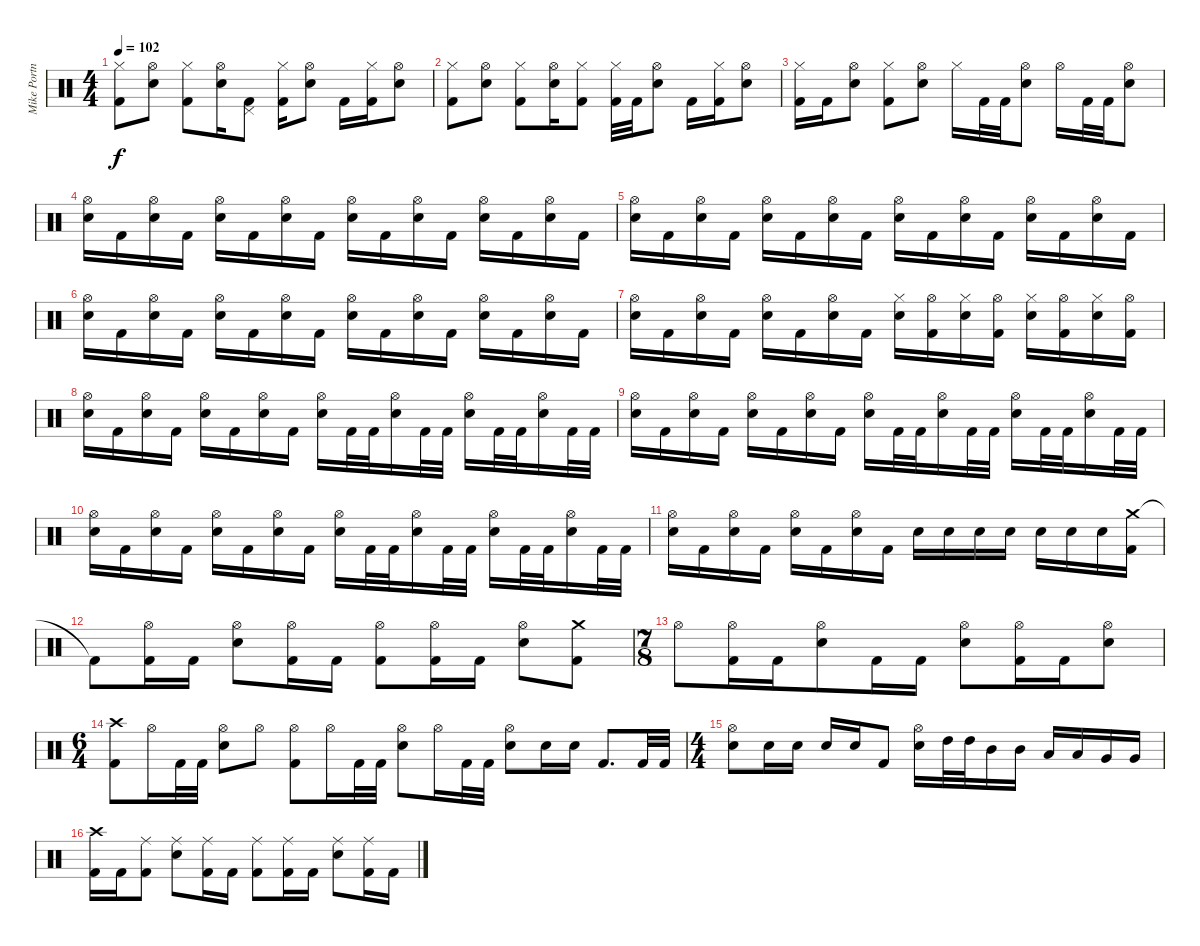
\track ("Mike Portnoy Drum " "Mike Portn") {instrument percussion}
\staff {score}
\articulation defaults
\ts (4 4)
\tempo 102
\clef neutral
\ks c
("Hi-Hat (closed)" "Kick (hit) 2").8{dy f} ("Hi-Hat (open)" "Electric Snare (hit)").8 ("Hi-Hat (closed)" "Kick (hit) 2").8 ("Hi-Hat (open)" "Electric Snare (hit)").16 ("Pedal Hi-Hat (hit)" "Kick (hit) 2").8 ("Hi-Hat (closed)" "Kick (hit) 2").16 ("Hi-Hat (open)" "Electric Snare (hit)").8 "Kick (hit) 2".16 ("Hi-Hat (closed)" "Kick (hit) 2").16 ("Hi-Hat (open)" "Electric Snare (hit)").8 |
("Hi-Hat (closed)" "Kick (hit) 2").8 ("Hi-Hat (open)" "Electric Snare (hit)").8 ("Hi-Hat (closed)" "Kick (hit) 2").8 ("Hi-Hat (open)" "Electric Snare (hit)").16 ("Hi-Hat (closed)" "Kick (hit) 2").8 ("Hi-Hat (closed)" "Kick (hit) 2").32 "Kick (hit) 2".32 ("Hi-Hat (open)" "Electric Snare (hit)").8 "Kick (hit) 2".16 ("Hi-Hat (closed)" "Kick (hit) 2").16 ("Hi-Hat (open)" "Electric Snare (hit)").8 |
("Hi-Hat (closed)" "Kick (hit) 2").16 "Kick (hit) 2".16 ("Hi-Hat (open)" "Electric Snare (hit)").8 ("Hi-Hat (closed)" "Kick (hit) 2").8 ("Hi-Hat (open)" "Electric Snare (hit)").8 "Hi-Hat (closed)".16 "Kick (hit) 2".32 "Kick (hit) 2".32 ("Hi-Hat (open)" "Electric Snare (hit)").8 "Hi-Hat (open)".16 "Kick (hit) 2".32 "Kick (hit) 2".32 ("Hi-Hat (open)" "Electric Snare (hit)").8 |
("Hi-Hat (open)" "Electric Snare (hit)").16 "Kick (hit) 2".16 ("Hi-Hat (open)" "Electric Snare (hit)").16 "Kick (hit) 2".16 ("Hi-Hat (open)" "Electric Snare (hit)").16 "Kick (hit) 2".16 ("Hi-Hat (open)" "Electric Snare (hit)").16 "Kick (hit) 2".16 ("Hi-Hat (open)" "Electric Snare (hit)").16 "Kick (hit) 2".16 ("Hi-Hat (open)" "Electric Snare (hit)").16 "Kick (hit) 2".16 ("Hi-Hat (open)" "Electric Snare (hit)").16 "Kick (hit) 2".16 ("Hi-Hat (open)" "Electric Snare (hit)").16 "Kick (hit) 2".16 |
("Hi-Hat (open)" "Electric Snare (hit)").16 "Kick (hit) 2".16 ("Hi-Hat (open)" "Electric Snare (hit)").16 "Kick (hit) 2".16 ("Hi-Hat (open)" "Electric Snare (hit)").16 "Kick (hit) 2".16 ("Hi-Hat (open)" "Electric Snare (hit)").16 "Kick (hit) 2".16 ("Hi-Hat (open)" "Electric Snare (hit)").16 "Kick (hit) 2".16 ("Hi-Hat (open)" "Electric Snare (hit)").16 "Kick (hit) 2".16 ("Hi-Hat (open)" "Electric Snare (hit)").16 "Kick (hit) 2".16 ("Hi-Hat (open)" "Electric Snare (hit)").16 "Kick (hit) 2".16 |
("Hi-Hat (open)" "Electric Snare (hit)").16 "Kick (hit) 2".16 ("Hi-Hat (open)" "Electric Snare (hit)").16 "Kick (hit) 2".16 ("Hi-Hat (open)" "Electric Snare (hit)").16 "Kick (hit) 2".16 ("Hi-Hat (open)" "Electric Snare (hit)").16 "Kick (hit) 2".16 ("Hi-Hat (open)" "Electric Snare (hit)").16 "Kick (hit) 2".16 ("Hi-Hat (open)" "Electric Snare (hit)").16 "Kick (hit) 2".16 ("Hi-Hat (open)" "Electric Snare (hit)").16 "Kick (hit) 2".16 ("Hi-Hat (open)" "Electric Snare (hit)").16 "Kick (hit) 2".16 |
("Hi-Hat (open)" "Electric Snare (hit)").16 "Kick (hit) 2".16 ("Hi-Hat (open)" "Electric Snare (hit)").16 "Kick (hit) 2".16 ("Hi-Hat (open)" "Electric Snare (hit)").16 "Kick (hit) 2".16 ("Hi-Hat (open)" "Electric Snare (hit)").16 "Kick (hit) 2".16 ("Hi-Hat (closed)" "Electric Snare (hit)").16 ("Hi-Hat (open)" "Kick (hit) 2").16 ("Hi-Hat (closed)" "Electric Snare (hit)").16 ("Hi-Hat (open)" "Kick (hit) 2").16 ("Hi-Hat (closed)" "Electric Snare (hit)").16 ("Hi-Hat (open)" "Kick (hit) 2").16 ("Hi-Hat (closed)" "Electric Snare (hit)").16 ("Hi-Hat (open)" "Kick (hit) 2").16 |
("Hi-Hat (open)" "Electric Snare (hit)").16 "Kick (hit) 2".16 ("Hi-Hat (open)" "Electric Snare (hit)").16 "Kick (hit) 2".16 ("Hi-Hat (open)" "Electric Snare (hit)").16 "Kick (hit) 2".16 ("Hi-Hat (open)" "Electric Snare (hit)").16 "Kick (hit) 2".16 ("Hi-Hat (open)" "Electric Snare (hit)").16 "Kick (hit) 2".32 "Kick (hit) 2".32 ("Hi-Hat (open)" "Electric Snare (hit)").16 "Kick (hit) 2".32 "Kick (hit) 2".32 ("Hi-Hat (open)" "Electric Snare (hit)").16 "Kick (hit) 2".32 "Kick (hit) 2".32 ("Hi-Hat (open)" "Electric Snare (hit)").16 "Kick (hit) 2".32 "Kick (hit) 2".32 |
("Hi-Hat (open)" "Electric Snare (hit)").16 "Kick (hit) 2".16 ("Hi-Hat (open)" "Electric Snare (hit)").16 "Kick (hit) 2".16 ("Hi-Hat (open)" "Electric Snare (hit)").16 "Kick (hit) 2".16 ("Hi-Hat (open)" "Electric Snare (hit)").16 "Kick (hit) 2".16 ("Hi-Hat (open)" "Electric Snare (hit)").16 "Kick (hit) 2".32 "Kick (hit) 2".32 ("Hi-Hat (open)" "Electric Snare (hit)").16 "Kick (hit) 2".32 "Kick (hit) 2".32 ("Hi-Hat (open)" "Electric Snare (hit)").16 "Kick (hit) 2".32 "Kick (hit) 2".32 ("Hi-Hat (open)" "Electric Snare (hit)").16 "Kick (hit) 2".32 "Kick (hit) 2".32 |
("Hi-Hat (open)" "Electric Snare (hit)").16 "Kick (hit) 2".16 ("Hi-Hat (open)" "Electric Snare (hit)").16 "Kick (hit) 2".16 ("Hi-Hat (open)" "Electric Snare (hit)").16 "Kick (hit) 2".16 ("Hi-Hat (open)" "Electric Snare (hit)").16 "Kick (hit) 2".16 ("Hi-Hat (open)" "Electric Snare (hit)").16 "Kick (hit) 2".32 "Kick (hit) 2".32 ("Hi-Hat (open)" "Electric Snare (hit)").16 "Kick (hit) 2".32 "Kick (hit) 2".32 ("Hi-Hat (open)" "Electric Snare (hit)").16 "Kick (hit) 2".32 "Kick (hit) 2".32 ("Hi-Hat (open)" "Electric Snare (hit)").16 "Kick (hit) 2".32 "Kick (hit) 2".32 |
("Hi-Hat (open)" "Electric Snare (hit)").16 "Kick (hit) 2".16 ("Hi-Hat (open)" "Electric Snare (hit)").16 "Kick (hit) 2".16 ("Hi-Hat (open)" "Electric Snare (hit)").16 "Kick (hit) 2".16 ("Hi-Hat (open)" "Electric Snare (hit)").16 "Kick (hit) 2".16 "Electric Snare (hit)".16 "Electric Snare (hit)".16 "Electric Snare (hit)".16 "Electric Snare (hit)".16 "Electric Snare (hit)".16 "Electric Snare (hit)".16 "Electric Snare (hit)".16 ("Crash medium (hit)" "Kick (hit) 2").16 |
"Kick (hit) 2"{t}.8 ("Hi-Hat (open)" "Kick (hit) 2").16 "Kick (hit) 2".16 ("Hi-Hat (open)" "Electric Snare (hit)").8 ("Hi-Hat (open)" "Kick (hit) 2").16 "Kick (hit) 2".16 ("Hi-Hat (open)" "Kick (hit) 2").8 ("Hi-Hat (open)" "Kick (hit) 2").16 "Kick (hit) 2".16 ("Hi-Hat (open)" "Electric Snare (hit)").8 ("Crash medium (hit)" "Kick (hit) 2").8 |
\ts (7 8)
"Hi-Hat (open)".8 ("Hi-Hat (open)" "Kick (hit) 2").16 "Kick (hit) 2".16 ("Hi-Hat (open)" "Electric Snare (hit)").8 "Kick (hit) 2".16 "Kick (hit) 2".16 ("Hi-Hat (open)" "Electric Snare (hit)").8 ("Hi-Hat (open)" "Kick (hit) 2").16 "Kick (hit) 2".16 ("Hi-Hat (open)" "Electric Snare (hit)").8 |
\ts (6 4)
("Crash high (hit)" "Kick (hit) 2").8 "Hi-Hat (open)".16 "Kick (hit) 2".32 "Kick (hit) 2".32 ("Hi-Hat (open)" "Electric Snare (hit)").8 "Hi-Hat (open)".8 ("Hi-Hat (open)" "Kick (hit) 2").8 "Hi-Hat (open)".16 "Kick (hit) 2".32 "Kick (hit) 2".32 ("Hi-Hat (open)" "Electric Snare (hit)").8 "Hi-Hat (open)".16 "Kick (hit) 2".32 "Kick (hit) 2".32 ("Hi-Hat (open)" "Electric Snare (hit)").8 "Electric Snare (hit)".16 "Electric Snare (hit)".16 "Kick (hit) 2".8{d} "Kick (hit) 2".32 "Kick (hit) 2".32 |
\ts (4 4)
("Hi-Hat (open)" "Electric Snare (hit)").8 "Electric Snare (hit)".16 "Electric Snare (hit)".16 "Electric Snare (hit)".16 "Electric Snare (hit)".16 "Kick (hit) 2".8 ("Hi-Hat (open)" "Electric Snare (hit)").16 "High Tom (hit)".32 "High Tom (hit)".32 "Mid Tom (hit)".16 "Mid Tom (hit)".16 "Low Tom (hit)".16 "Low Tom (hit)".16 "Very Low Tom (hit)".16 "Very Low Tom (hit)".16 |
("Crash high (hit)" "Kick (hit) 2").16 "Kick (hit) 2".16 ("Ride (middle)" "Kick (hit) 2").8 ("Ride (middle)" "Electric Snare (hit)").8 ("Ride (middle)" "Kick (hit) 2").16 "Kick (hit) 2".16 ("Ride (middle)" "Kick (hit) 2").8 ("Ride (middle)" "Kick (hit) 2").16 "Kick (hit) 2".16 ("Ride (middle)" "Electric Snare (hit)").8 ("Ride (middle)" "Kick (hit) 2").16 "Kick (hit) 2".16
